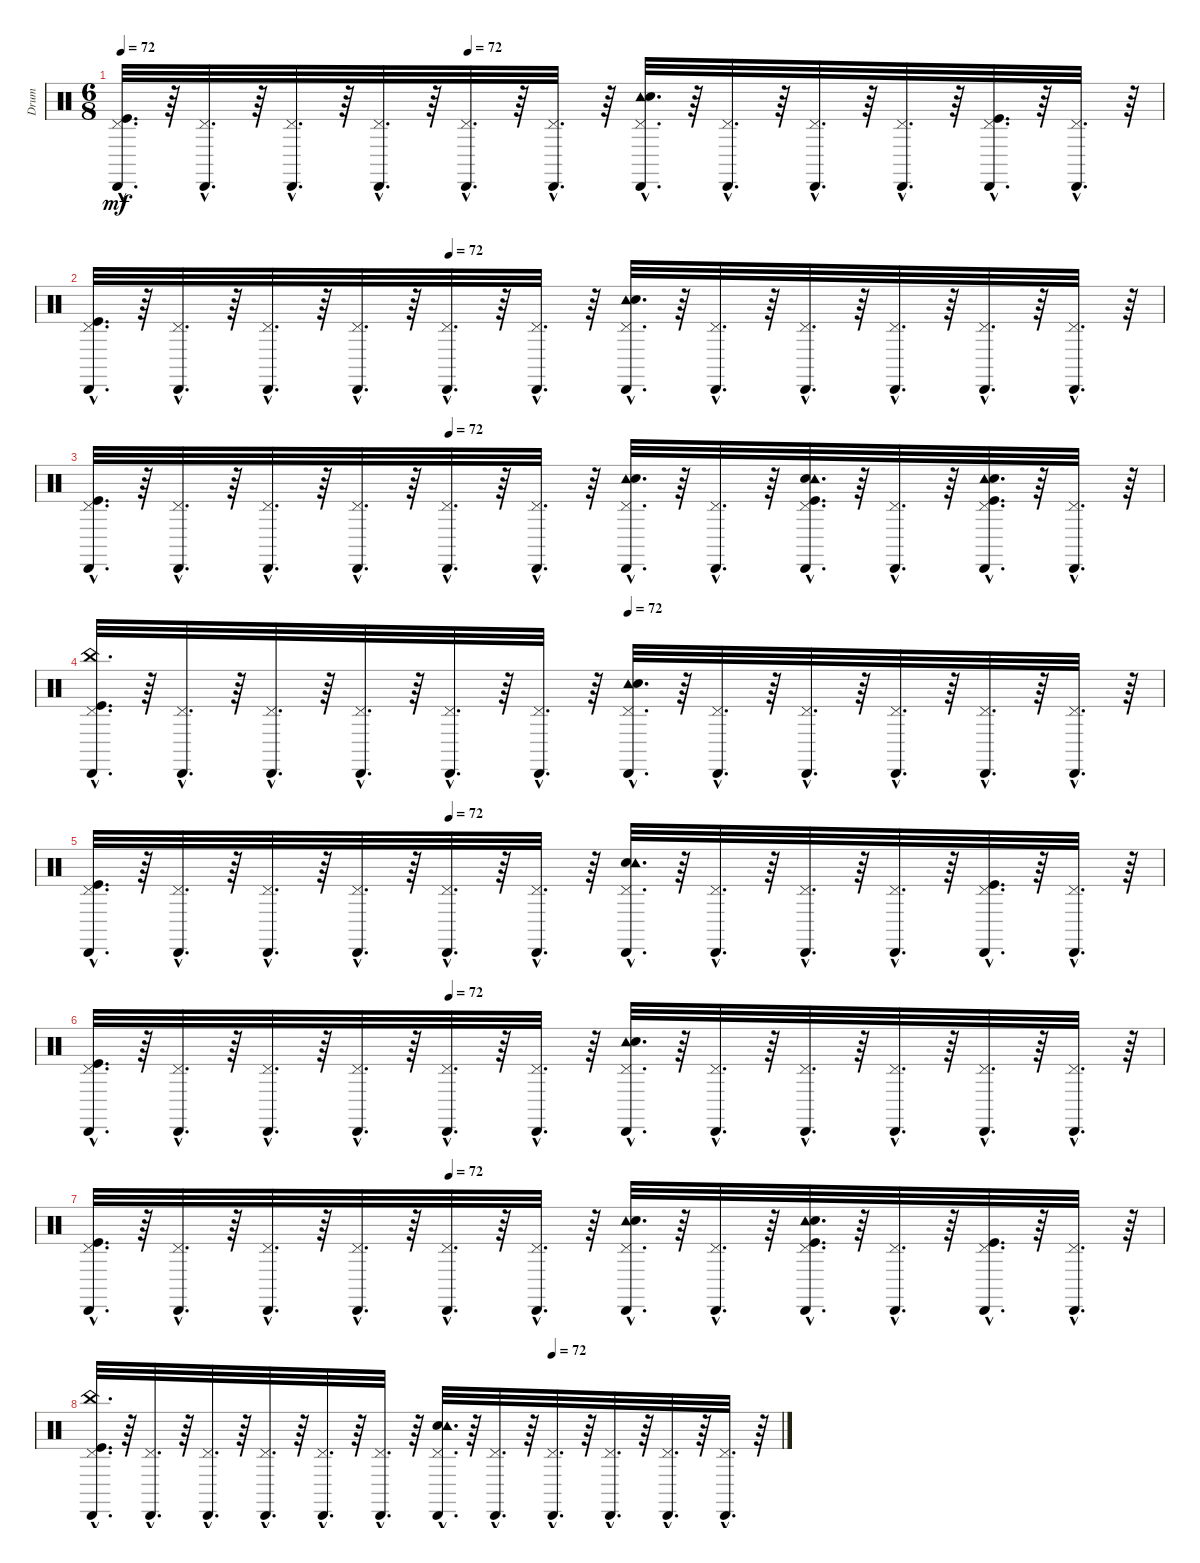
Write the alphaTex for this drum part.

\track ("Drum" "Drum") {instrument percussion}
\staff {score}
\articulation defaults
\ts (6 8)
\tempo 72
\tempo (72 0.3333333333333333)
\clef neutral
\ks c
("Cabasa (hit)"{hac} "Pedal Hi-Hat (hit)"{hac} "Kick (hit)"{hac}).32{d dy mf} r.64 ("Cabasa (hit)"{hac} "Pedal Hi-Hat (hit)"{hac}).32{d} r.64 ("Cabasa (hit)"{hac} "Pedal Hi-Hat (hit)"{hac}).32{d} r.64 ("Cabasa (hit)"{hac} "Pedal Hi-Hat (hit)"{hac}).32{d} r.64 ("Cabasa (hit)"{hac} "Pedal Hi-Hat (hit)"{hac}).32{d} r.64 ("Cabasa (hit)"{hac} "Pedal Hi-Hat (hit)"{hac}).32{d} r.64 ("Cabasa (hit)"{hac} "Pedal Hi-Hat (hit)"{hac} "Tambourine (hit)"{hac} "Electric Snare (hit)"{hac}).32{d} r.64 ("Cabasa (hit)"{hac} "Pedal Hi-Hat (hit)"{hac}).32{d} r.64 ("Cabasa (hit)"{hac} "Pedal Hi-Hat (hit)"{hac}).32{d} r.64 ("Cabasa (hit)"{hac} "Pedal Hi-Hat (hit)"{hac}).32{d} r.64 ("Kick (hit)"{hac} "Cabasa (hit)"{hac} "Pedal Hi-Hat (hit)"{hac}).32{d} r.64 ("Cabasa (hit)"{hac} "Pedal Hi-Hat (hit)"{hac}).32{d} r.64 |
\tempo (72 0.3333333333333333)
("Cabasa (hit)"{hac} "Pedal Hi-Hat (hit)"{hac} "Kick (hit)"{hac}).32{d} r.64 ("Cabasa (hit)"{hac} "Pedal Hi-Hat (hit)"{hac}).32{d} r.64 ("Cabasa (hit)"{hac} "Pedal Hi-Hat (hit)"{hac}).32{d} r.64 ("Cabasa (hit)"{hac} "Pedal Hi-Hat (hit)"{hac}).32{d} r.64 ("Cabasa (hit)"{hac} "Pedal Hi-Hat (hit)"{hac}).32{d} r.64 ("Cabasa (hit)"{hac} "Pedal Hi-Hat (hit)"{hac}).32{d} r.64 ("Cabasa (hit)"{hac} "Pedal Hi-Hat (hit)"{hac} "Tambourine (hit)"{hac} "Electric Snare (hit)"{hac}).32{d} r.64 ("Cabasa (hit)"{hac} "Pedal Hi-Hat (hit)"{hac}).32{d} r.64 ("Cabasa (hit)"{hac} "Pedal Hi-Hat (hit)"{hac}).32{d} r.64 ("Cabasa (hit)"{hac} "Pedal Hi-Hat (hit)"{hac}).32{d} r.64 ("Cabasa (hit)"{hac} "Pedal Hi-Hat (hit)"{hac}).32{d} r.64 ("Cabasa (hit)"{hac} "Pedal Hi-Hat (hit)"{hac}).32{d} r.64 |
\tempo (72 0.3333333333333333)
("Cabasa (hit)"{hac} "Pedal Hi-Hat (hit)"{hac} "Kick (hit)"{hac}).32{d} r.64 ("Cabasa (hit)"{hac} "Pedal Hi-Hat (hit)"{hac}).32{d} r.64 ("Cabasa (hit)"{hac} "Pedal Hi-Hat (hit)"{hac}).32{d} r.64 ("Cabasa (hit)"{hac} "Pedal Hi-Hat (hit)"{hac}).32{d} r.64 ("Cabasa (hit)"{hac} "Pedal Hi-Hat (hit)"{hac}).32{d} r.64 ("Cabasa (hit)"{hac} "Pedal Hi-Hat (hit)"{hac}).32{d} r.64 ("Cabasa (hit)"{hac} "Pedal Hi-Hat (hit)"{hac} "Tambourine (hit)"{hac} "Electric Snare (hit)"{hac}).32{d} r.64 ("Cabasa (hit)"{hac} "Pedal Hi-Hat (hit)"{hac}).32{d} r.64 ("Kick (hit)"{hac} "Electric Snare (hit)"{hac} "Tambourine (hit)"{hac} "Cabasa (hit)"{hac} "Pedal Hi-Hat (hit)"{hac}).32{d} r.64 ("Cabasa (hit)"{hac} "Pedal Hi-Hat (hit)"{hac}).32{d} r.64 ("Kick (hit)"{hac} "Cabasa (hit)"{hac} "Pedal Hi-Hat (hit)"{hac} "Tambourine (hit)"{hac} "Electric Snare (hit)"{hac}).32{d} r.64 ("Cabasa (hit)"{hac} "Pedal Hi-Hat (hit)"{hac}).32{d} r.64 |
\tempo (72 0.5)
("Pedal Hi-Hat (hit)"{hac} "Kick (hit)"{hac} "Cabasa (hit)"{hac} "China (hit)"{hac}).32{d} r.64 ("Cabasa (hit)"{hac} "Pedal Hi-Hat (hit)"{hac}).32{d} r.64 ("Cabasa (hit)"{hac} "Pedal Hi-Hat (hit)"{hac}).32{d} r.64 ("Pedal Hi-Hat (hit)"{hac} "Cabasa (hit)"{hac}).32{d} r.64 ("Cabasa (hit)"{hac} "Pedal Hi-Hat (hit)"{hac}).32{d} r.64 ("Cabasa (hit)"{hac} "Pedal Hi-Hat (hit)"{hac}).32{d} r.64 ("Cabasa (hit)"{hac} "Tambourine (hit)"{hac} "Electric Snare (hit)"{hac} "Pedal Hi-Hat (hit)"{hac}).32{d} r.64 ("Pedal Hi-Hat (hit)"{hac} "Cabasa (hit)"{hac}).32{d} r.64 ("Cabasa (hit)"{hac} "Pedal Hi-Hat (hit)"{hac}).32{d} r.64 ("Cabasa (hit)"{hac} "Pedal Hi-Hat (hit)"{hac}).32{d} r.64 ("Cabasa (hit)"{hac} "Pedal Hi-Hat (hit)"{hac}).32{d} r.64 ("Cabasa (hit)"{hac} "Pedal Hi-Hat (hit)"{hac}).32{d} r.64 |
\tempo (72 0.3333333333333333)
("Cabasa (hit)"{hac} "Kick (hit)"{hac} "Pedal Hi-Hat (hit)"{hac}).32{d} r.64 ("Cabasa (hit)"{hac} "Pedal Hi-Hat (hit)"{hac}).32{d} r.64 ("Pedal Hi-Hat (hit)"{hac} "Cabasa (hit)"{hac}).32{d} r.64 ("Cabasa (hit)"{hac} "Pedal Hi-Hat (hit)"{hac}).32{d} r.64 ("Pedal Hi-Hat (hit)"{hac} "Cabasa (hit)"{hac}).32{d} r.64 ("Cabasa (hit)"{hac} "Pedal Hi-Hat (hit)"{hac}).32{d} r.64 ("Electric Snare (hit)"{hac} "Cabasa (hit)"{hac} "Tambourine (hit)"{hac} "Pedal Hi-Hat (hit)"{hac}).32{d} r.64 ("Cabasa (hit)"{hac} "Pedal Hi-Hat (hit)"{hac}).32{d} r.64 ("Cabasa (hit)"{hac} "Pedal Hi-Hat (hit)"{hac}).32{d} r.64 ("Cabasa (hit)"{hac} "Pedal Hi-Hat (hit)"{hac}).32{d} r.64 ("Cabasa (hit)"{hac} "Pedal Hi-Hat (hit)"{hac} "Kick (hit)"{hac}).32{d} r.64 ("Pedal Hi-Hat (hit)"{hac} "Cabasa (hit)"{hac}).32{d} r.64 |
\tempo (72 0.3333333333333333)
("Kick (hit)"{hac} "Pedal Hi-Hat (hit)"{hac} "Cabasa (hit)"{hac}).32{d} r.64 ("Cabasa (hit)"{hac} "Pedal Hi-Hat (hit)"{hac}).32{d} r.64 ("Cabasa (hit)"{hac} "Pedal Hi-Hat (hit)"{hac}).32{d} r.64 ("Pedal Hi-Hat (hit)"{hac} "Cabasa (hit)"{hac}).32{d} r.64 ("Pedal Hi-Hat (hit)"{hac} "Cabasa (hit)"{hac}).32{d} r.64 ("Pedal Hi-Hat (hit)"{hac} "Cabasa (hit)"{hac}).32{d} r.64 ("Cabasa (hit)"{hac} "Tambourine (hit)"{hac} "Electric Snare (hit)"{hac} "Pedal Hi-Hat (hit)"{hac}).32{d} r.64 ("Pedal Hi-Hat (hit)"{hac} "Cabasa (hit)"{hac}).32{d} r.64 ("Cabasa (hit)"{hac} "Pedal Hi-Hat (hit)"{hac}).32{d} r.64 ("Cabasa (hit)"{hac} "Pedal Hi-Hat (hit)"{hac}).32{d} r.64 ("Pedal Hi-Hat (hit)"{hac} "Cabasa (hit)"{hac}).32{d} r.64 ("Cabasa (hit)"{hac} "Pedal Hi-Hat (hit)"{hac}).32{d} r.64 |
\tempo (72 0.3333333333333333)
("Kick (hit)"{hac} "Cabasa (hit)"{hac} "Pedal Hi-Hat (hit)"{hac}).32{d} r.64 ("Cabasa (hit)"{hac} "Pedal Hi-Hat (hit)"{hac}).32{d} r.64 ("Cabasa (hit)"{hac} "Pedal Hi-Hat (hit)"{hac}).32{d} r.64 ("Cabasa (hit)"{hac} "Pedal Hi-Hat (hit)"{hac}).32{d} r.64 ("Cabasa (hit)"{hac} "Pedal Hi-Hat (hit)"{hac}).32{d} r.64 ("Cabasa (hit)"{hac} "Pedal Hi-Hat (hit)"{hac}).32{d} r.64 ("Tambourine (hit)"{hac} "Cabasa (hit)"{hac} "Electric Snare (hit)"{hac} "Pedal Hi-Hat (hit)"{hac}).32{d} r.64 ("Cabasa (hit)"{hac} "Pedal Hi-Hat (hit)"{hac}).32{d} r.64 ("Tambourine (hit)"{hac} "Cabasa (hit)"{hac} "Kick (hit)"{hac} "Pedal Hi-Hat (hit)"{hac} "Electric Snare (hit)"{hac}).32{d} r.64 ("Cabasa (hit)"{hac} "Pedal Hi-Hat (hit)"{hac}).32{d} r.64 ("Pedal Hi-Hat (hit)"{hac} "Kick (hit)"{hac} "Cabasa (hit)"{hac}).32{d} r.64 ("Pedal Hi-Hat (hit)"{hac} "Cabasa (hit)"{hac}).32{d} r.64 |
\tempo (72 0.6666666666666666)
("Pedal Hi-Hat (hit)"{hac} "Kick (hit)"{hac} "Cabasa (hit)"{hac} "China (hit)"{hac}).32{d} r.64 ("Cabasa (hit)"{hac} "Pedal Hi-Hat (hit)"{hac}).32{d} r.64 ("Pedal Hi-Hat (hit)"{hac} "Cabasa (hit)"{hac}).32{d} r.64 ("Cabasa (hit)"{hac} "Pedal Hi-Hat (hit)"{hac}).32{d} r.64 ("Pedal Hi-Hat (hit)"{hac} "Cabasa (hit)"{hac}).32{d} r.64 ("Cabasa (hit)"{hac} "Pedal Hi-Hat (hit)"{hac}).32{d} r.64 ("Electric Snare (hit)"{hac} "Tambourine (hit)"{hac} "Cabasa (hit)"{hac} "Pedal Hi-Hat (hit)"{hac}).32{d} r.64 ("Cabasa (hit)"{hac} "Pedal Hi-Hat (hit)"{hac}).32{d} r.64 ("Cabasa (hit)"{hac} "Pedal Hi-Hat (hit)"{hac}).32{d} r.64 ("Cabasa (hit)"{hac} "Pedal Hi-Hat (hit)"{hac}).32{d} r.64 ("Cabasa (hit)"{hac} "Pedal Hi-Hat (hit)"{hac}).32{d} r.64 ("Cabasa (hit)"{hac} "Pedal Hi-Hat (hit)"{hac}).32{d} r.64
